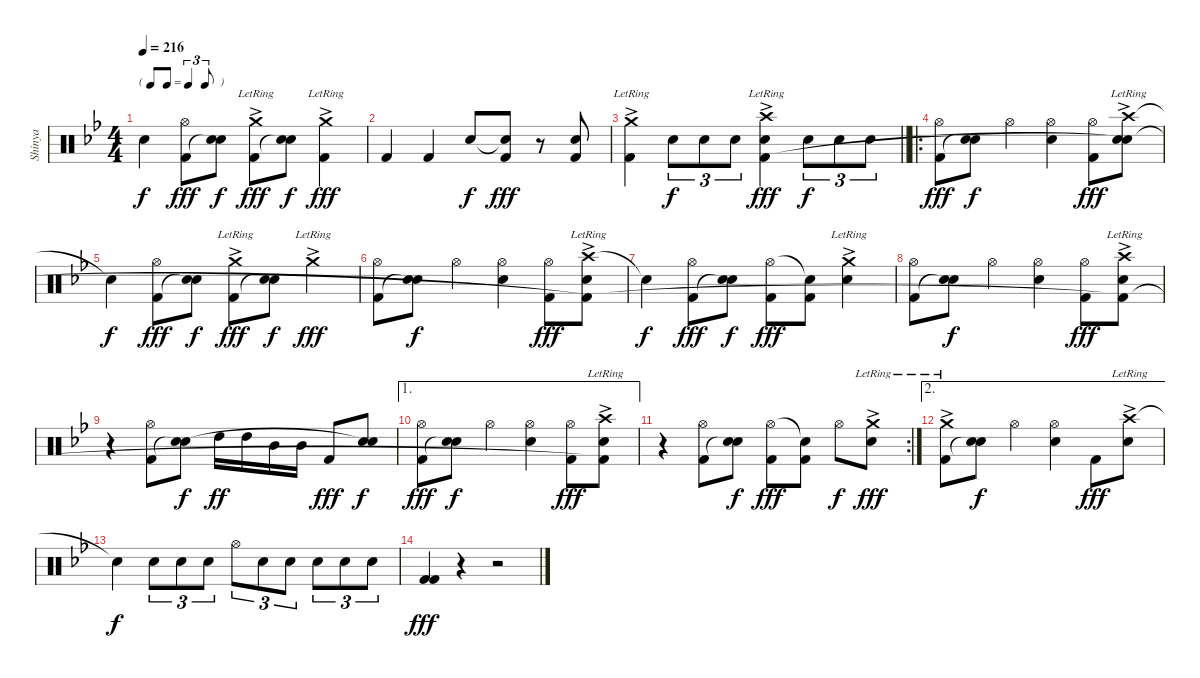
\track ("Shinya" "Shinya") {instrument percussion}
\staff {score}
\articulation defaults
\ts (4 4)
\tf triplet8th
\tempo 216
\clef neutral
\ks bb "Snare (hit)"{t}.4{dy f}
("Hi-Hat (open)" "Kick (hit) 2").8{dy fff} ("Electric Snare (hit)" "Snare (hit)"{t}).8{dy f} ("Crash medium (hit)"{ac lr} "Kick (hit) 2").8{dy fff} ("Electric Snare (hit)" "Snare (hit)"{t}).8{dy f} ("Crash medium (hit)"{ac lr} "Kick (hit) 2").4{dy fff} |
"Kick (hit) 2".4 "Kick (hit) 2".4 "Electric Snare (hit)".8{dy f} ("Snare (hit)"{t} "Kick (hit) 2").8{dy fff} r.8 ("Electric Snare (hit)" "Kick (hit) 2").8 |
\barLineRight lightlight
("Crash medium (hit)"{ac lr} "Kick (hit) 2").4 "Electric Snare (hit)".8{tu (3 2) dy f} "Electric Snare (hit)".8{tu (3 2)} "Electric Snare (hit)".8{tu (3 2)} ("Crash high (hit)"{ac lr} "Electric Snare (hit)" "Kick (hit) 2").4{dy fff} "Electric Snare (hit)".8{tu (3 2) dy f} "Electric Snare (hit)".8{tu (3 2)} "Electric Snare (hit)".8{tu (3 2)} |
\ro
("Hi-Hat (open)" "Kick (hit) 2").8{dy fff} ("Electric Snare (hit)" "Snare (hit)"{t}).8{dy f} "Hi-Hat (open)".4 ("Hi-Hat (open)" "Electric Snare (hit)").4 ("Hi-Hat (open)" "Kick (hit) 2").8{dy fff} ("Crash high (hit)"{ac lr} "Electric Snare (hit)" "Snare (hit)"{t}).8 |
"Snare (hit)"{t}.4{dy f} ("Hi-Hat (open)" "Kick (hit) 2").8{dy fff} ("Electric Snare (hit)" "Snare (hit)"{t}).8{dy f} ("Crash medium (hit)"{ac lr} "Kick (hit) 2").8{dy fff} ("Electric Snare (hit)" "Snare (hit)"{t}).8{dy f} "Crash medium (hit)"{ac lr}.4{dy fff} |
("Hi-Hat (open)" "Kick (hit) 2").8 ("Electric Snare (hit)" "Snare (hit)"{t}).8{dy f} "Hi-Hat (open)".4 ("Hi-Hat (open)" "Electric Snare (hit)").4 ("Hi-Hat (open)" "Kick (hit) 2").8{dy fff} ("Crash high (hit)"{ac lr} "Electric Snare (hit)" "Kick (hit) 2"{t}).8 |
"Snare (hit)"{t}.4{dy f} ("Hi-Hat (open)" "Kick (hit) 2").8{dy fff} ("Electric Snare (hit)" "Snare (hit)"{t}).8{dy f} ("Hi-Hat (open)" "Kick (hit) 2").8{dy fff} ("Snare (hit)"{t} "Kick (hit) 2").8 ("Crash medium (hit)"{ac lr} "Electric Snare (hit)").4 |
("Hi-Hat (open)" "Kick (hit) 2").8 ("Electric Snare (hit)" "Snare (hit)"{t}).8{dy f} "Hi-Hat (open)".4 ("Hi-Hat (open)" "Electric Snare (hit)").4 ("Hi-Hat (open)" "Kick (hit) 2").8{dy fff} ("Crash high (hit)"{ac lr} "Electric Snare (hit)" "Kick (hit) 2"{t}).8 |
r.4 ("Hi-Hat (open)" "Kick (hit) 2").8 ("Electric Snare (hit)" "Snare (hit)"{t}).8{dy f} "High Tom (hit)".16{dy ff} "High Tom (hit)".16 "Mid Tom (hit)".16 "Mid Tom (hit)".16 "Kick (hit) 2".8{dy fff} ("Electric Snare (hit)" "Snare (hit)"{t}).8{dy f} |
\ae 1
("Hi-Hat (open)" "Kick (hit) 2").8{dy fff} ("Electric Snare (hit)" "Snare (hit)"{t}).8{dy f} "Hi-Hat (open)".4 ("Hi-Hat (open)" "Electric Snare (hit)").4 ("Hi-Hat (open)" "Kick (hit) 2").8{dy fff} ("Crash high (hit)"{ac lr} "Electric Snare (hit)" "Kick (hit) 2"{t}).8 |
\rc 2
r.4 ("Hi-Hat (open)" "Kick (hit) 2").8 ("Electric Snare (hit)" "Snare (hit)"{t}).8{dy f} ("Hi-Hat (open)" "Kick (hit) 2").8{dy fff} ("Snare (hit)"{t} "Kick (hit) 2").8 "Hi-Hat (open)".8{dy f} ("Crash medium (hit)"{ac lr} "Electric Snare (hit)").8{dy fff} |
\ae 2
("Crash medium (hit)"{ac lr} "Kick (hit) 2").8 ("Electric Snare (hit)" "Snare (hit)"{t}).8{dy f} "Hi-Hat (open)".4 ("Hi-Hat (open)" "Electric Snare (hit)").4 "Kick (hit) 2".8{dy fff} ("Crash high (hit)"{ac lr} "Electric Snare (hit)").8 |
"Snare (hit)"{t}.4{dy f} "Electric Snare (hit)".8{tu (3 2)} "Electric Snare (hit)".8{tu (3 2)} "Electric Snare (hit)".8{tu (3 2)} "Hi-Hat (open)".8{tu (3 2)} "Electric Snare (hit)".8{tu (3 2)} "Electric Snare (hit)".8{tu (3 2)} "Electric Snare (hit)".8{tu (3 2)} "Electric Snare (hit)".8{tu (3 2)} "Electric Snare (hit)".8{tu (3 2)} |
("Kick (hit) 2" "Kick (hit) 2").4{dy fff} r.4 r.2
